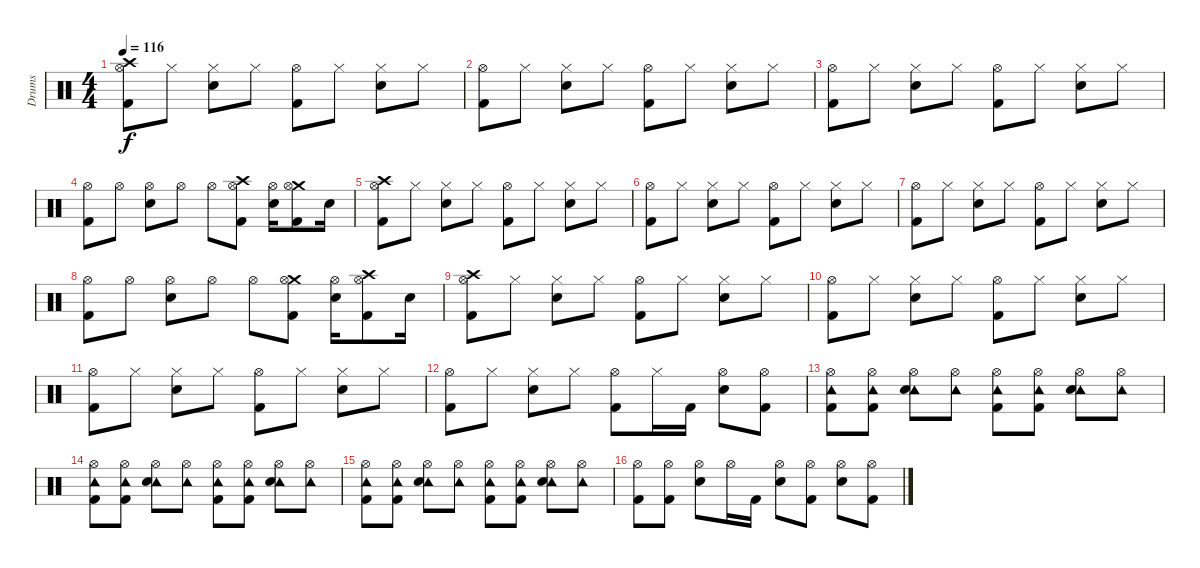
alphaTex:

\track ("Drums" "Drums") {instrument percussion}
\staff {score}
\articulation defaults
\ts (4 4)
\tempo 116
\clef neutral
\ks c
("Crash high (hit)" "Hi-Hat (open)" "Kick (hit) 2").8{dy f} "Hi-Hat (closed)".8 ("Hi-Hat (closed)" "Snare (hit) 2").8 "Hi-Hat (closed)".8 ("Hi-Hat (open)" "Kick (hit) 2").8 "Hi-Hat (closed)".8 ("Hi-Hat (closed)" "Snare (hit) 2").8 "Hi-Hat (closed)".8 |
("Hi-Hat (open)" "Kick (hit) 2").8 "Hi-Hat (closed)".8 ("Hi-Hat (closed)" "Snare (hit) 2").8 "Hi-Hat (closed)".8 ("Hi-Hat (open)" "Kick (hit) 2").8 "Hi-Hat (closed)".8 ("Hi-Hat (closed)" "Snare (hit) 2").8 "Hi-Hat (closed)".8 |
("Hi-Hat (open)" "Kick (hit) 2").8 "Hi-Hat (closed)".8 ("Hi-Hat (closed)" "Snare (hit) 2").8 "Hi-Hat (closed)".8 ("Hi-Hat (open)" "Kick (hit) 2").8 "Hi-Hat (closed)".8 ("Hi-Hat (closed)" "Snare (hit) 2").8 "Hi-Hat (closed)".8 |
("Hi-Hat (open)" "Kick (hit) 2").8 "Hi-Hat (open)".8 ("Hi-Hat (open)" "Snare (hit) 2").8 "Hi-Hat (open)".8 "Hi-Hat (open)".8 ("Crash high (hit)" "Hi-Hat (open)" "Kick (hit) 2").8 ("Hi-Hat (open)" "Snare (hit) 2").16 ("Crash medium (hit)" "Hi-Hat (open)" "Kick (hit) 2").8 "Snare (hit)"{x}.16 |
("Crash high (hit)" "Hi-Hat (open)" "Kick (hit) 2").8 "Hi-Hat (closed)".8 ("Hi-Hat (closed)" "Snare (hit) 2").8 "Hi-Hat (closed)".8 ("Hi-Hat (open)" "Kick (hit) 2").8 "Hi-Hat (closed)".8 ("Hi-Hat (closed)" "Snare (hit) 2").8 "Hi-Hat (closed)".8 |
("Hi-Hat (open)" "Kick (hit) 2").8 "Hi-Hat (closed)".8 ("Hi-Hat (closed)" "Snare (hit) 2").8 "Hi-Hat (closed)".8 ("Hi-Hat (open)" "Kick (hit) 2").8 "Hi-Hat (closed)".8 ("Hi-Hat (closed)" "Snare (hit) 2").8 "Hi-Hat (closed)".8 |
("Hi-Hat (open)" "Kick (hit) 2").8 "Hi-Hat (closed)".8 ("Hi-Hat (closed)" "Snare (hit) 2").8 "Hi-Hat (closed)".8 ("Hi-Hat (open)" "Kick (hit) 2").8 "Hi-Hat (closed)".8 ("Hi-Hat (closed)" "Snare (hit) 2").8 "Hi-Hat (closed)".8 |
("Hi-Hat (open)" "Kick (hit) 2").8 "Hi-Hat (open)".8 ("Hi-Hat (open)" "Snare (hit) 2").8 "Hi-Hat (open)".8 "Hi-Hat (open)".8 ("Crash medium (hit)" "Hi-Hat (open)" "Kick (hit) 2").8 ("Hi-Hat (open)" "Snare (hit) 2").16 ("Crash high (hit)" "Hi-Hat (open)" "Kick (hit) 2").8 "Snare (hit)"{x}.16 |
("Crash high (hit)" "Hi-Hat (open)" "Kick (hit) 2").8 "Hi-Hat (closed)".8 ("Hi-Hat (closed)" "Snare (hit) 2").8 "Hi-Hat (closed)".8 ("Hi-Hat (open)" "Kick (hit) 2").8 "Hi-Hat (closed)".8 ("Hi-Hat (closed)" "Snare (hit) 2").8 "Hi-Hat (closed)".8 |
("Hi-Hat (open)" "Kick (hit) 2").8 "Hi-Hat (closed)".8 ("Hi-Hat (closed)" "Snare (hit) 2").8 "Hi-Hat (closed)".8 ("Hi-Hat (open)" "Kick (hit) 2").8 "Hi-Hat (closed)".8 ("Hi-Hat (closed)" "Snare (hit) 2").8 "Hi-Hat (closed)".8 |
("Hi-Hat (open)" "Kick (hit) 2").8 "Hi-Hat (closed)".8 ("Hi-Hat (closed)" "Snare (hit) 2").8 "Hi-Hat (closed)".8 ("Hi-Hat (open)" "Kick (hit) 2").8 "Hi-Hat (closed)".8 ("Hi-Hat (closed)" "Snare (hit) 2").8 "Hi-Hat (closed)".8 |
("Hi-Hat (open)" "Kick (hit) 2").8 "Hi-Hat (closed)".8 ("Hi-Hat (closed)" "Snare (hit) 2").8 "Hi-Hat (closed)".8 ("Hi-Hat (open)" "Kick (hit) 2").8 "Hi-Hat (closed)".16 "Kick (hit) 2".16 ("Hi-Hat (open)" "Snare (hit) 2").8 ("Hi-Hat (open)" "Kick (hit) 2").8 |
("Hi-Hat (open)" "Tambourine (hit)" "Kick (hit) 2").8 ("Hi-Hat (open)" "Tambourine (hit)" "Kick (hit) 2").8 ("Hi-Hat (open)" "Tambourine (hit)" "Snare (hit) 2").8 ("Hi-Hat (open)" "Tambourine (hit)").8 ("Hi-Hat (open)" "Tambourine (hit)" "Kick (hit) 2").8 ("Hi-Hat (open)" "Tambourine (hit)" "Kick (hit) 2").8 ("Hi-Hat (open)" "Tambourine (hit)" "Snare (hit) 2").8 ("Hi-Hat (open)" "Tambourine (hit)").8 |
("Hi-Hat (open)" "Tambourine (hit)" "Kick (hit) 2").8 ("Hi-Hat (open)" "Tambourine (hit)" "Kick (hit) 2").8 ("Hi-Hat (open)" "Tambourine (hit)" "Snare (hit) 2").8 ("Hi-Hat (open)" "Tambourine (hit)").8 ("Hi-Hat (open)" "Tambourine (hit)" "Kick (hit) 2").8 ("Hi-Hat (open)" "Tambourine (hit)" "Kick (hit) 2").8 ("Hi-Hat (open)" "Tambourine (hit)" "Snare (hit) 2").8 ("Hi-Hat (open)" "Tambourine (hit)").8 |
("Hi-Hat (open)" "Tambourine (hit)" "Kick (hit) 2").8 ("Hi-Hat (open)" "Tambourine (hit)" "Kick (hit) 2").8 ("Hi-Hat (open)" "Tambourine (hit)" "Snare (hit) 2").8 ("Hi-Hat (open)" "Tambourine (hit)").8 ("Hi-Hat (open)" "Tambourine (hit)" "Kick (hit) 2").8 ("Hi-Hat (open)" "Tambourine (hit)" "Kick (hit) 2").8 ("Hi-Hat (open)" "Tambourine (hit)" "Snare (hit) 2").8 ("Hi-Hat (open)" "Tambourine (hit)").8 |
("Hi-Hat (open)" "Kick (hit) 2").8 ("Hi-Hat (open)" "Kick (hit) 2").8 ("Hi-Hat (open)" "Snare (hit) 2").8 "Hi-Hat (open)".16 "Kick (hit) 2".16 ("Hi-Hat (open)" "Snare (hit) 2").8 ("Hi-Hat (open)" "Kick (hit) 2").8 ("Hi-Hat (open)" "Snare (hit) 2").8 ("Hi-Hat (open)" "Kick (hit) 2").8
